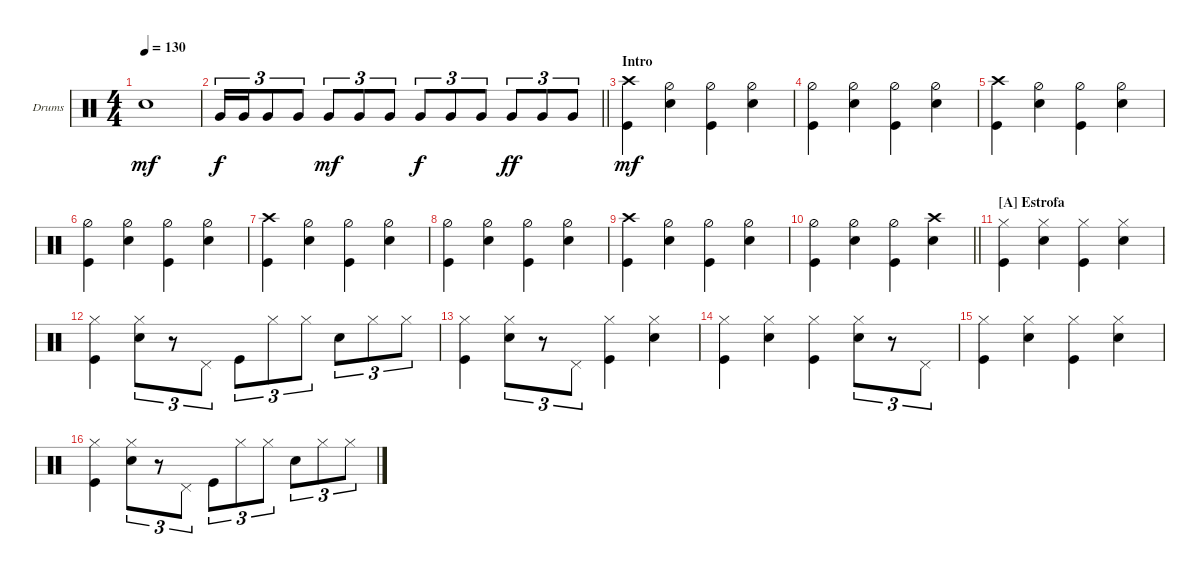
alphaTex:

\bracketExtendMode groupsimilarinstruments
\firstSystemTrackNameOrientation horizontal
\otherSystemsTrackNameOrientation horizontal
\track ("Drums Ghoul" "Drums") {instrument percussion}
\staff {score}
\articulation defaults
\ts (4 4)
\tempo 130
\clef neutral
\ks c "Snare (hit) 2".1{dy mf}
|
\barLineRight lightlight "Very Low Tom (hit)".16{tu (3 2) dy f} "Very Low Tom (hit)".16{tu (3 2)} "Very Low Tom (hit)".8{tu (3 2)} "Very Low Tom (hit)".8{tu (3 2)} "Very Low Tom (hit)".8{tu (3 2) dy mf} "Very Low Tom (hit)".8{tu (3 2)} "Very Low Tom (hit)".8{tu (3 2)} "Very Low Tom (hit)".8{tu (3 2) dy f} "Very Low Tom (hit)".8{tu (3 2)} "Very Low Tom (hit)".8{tu (3 2)} "Very Low Tom (hit)".8{tu (3 2) dy ff} "Very Low Tom (hit)".8{tu (3 2)} "Very Low Tom (hit)".8{tu (3 2)}
|
\section ("" "Intro")
("Kick (hit)" "Crash high (hit)").4{dy mf} ("Snare (hit) 2" "Hi-Hat (half)").4 ("Kick (hit)" "Hi-Hat (half)").4 ("Snare (hit) 2" "Hi-Hat (half)").4 |
("Kick (hit)" "Hi-Hat (half)").4 ("Snare (hit) 2" "Hi-Hat (half)").4 ("Kick (hit)" "Hi-Hat (half)").4 ("Snare (hit) 2" "Hi-Hat (half)").4 |
("Kick (hit)" "Crash high (hit)").4 ("Snare (hit) 2" "Hi-Hat (half)").4 ("Kick (hit)" "Hi-Hat (half)").4 ("Snare (hit) 2" "Hi-Hat (half)").4 |
("Kick (hit)" "Hi-Hat (half)").4 ("Snare (hit) 2" "Hi-Hat (half)").4 ("Kick (hit)" "Hi-Hat (half)").4 ("Snare (hit) 2" "Hi-Hat (half)").4 |
("Kick (hit)" "Crash high (hit)").4 ("Snare (hit) 2" "Hi-Hat (half)").4 ("Kick (hit)" "Hi-Hat (half)").4 ("Snare (hit) 2" "Hi-Hat (half)").4 |
("Kick (hit)" "Hi-Hat (half)").4 ("Snare (hit) 2" "Hi-Hat (half)").4 ("Kick (hit)" "Hi-Hat (half)").4 ("Snare (hit) 2" "Hi-Hat (half)").4 |
("Kick (hit)" "Crash high (hit)").4 ("Snare (hit) 2" "Hi-Hat (half)").4 ("Kick (hit)" "Hi-Hat (half)").4 ("Snare (hit) 2" "Hi-Hat (half)").4 |
\barLineRight lightlight
("Kick (hit)" "Hi-Hat (half)").4 ("Snare (hit) 2" "Hi-Hat (half)").4 ("Kick (hit)" "Hi-Hat (half)").4 ("Snare (hit) 2" "Crash high (hit)").4 |
\section ("A" "Estrofa")
("Kick (hit)" "Hi-Hat (closed)").4 ("Snare (hit) 2" "Hi-Hat (closed)").4 ("Kick (hit)" "Hi-Hat (closed)").4 ("Snare (hit) 2" "Hi-Hat (closed)").4 |
("Kick (hit)" "Hi-Hat (closed)").4 ("Snare (hit) 2" "Hi-Hat (closed)").8{tu (3 2)} r.8{tu (3 2)} "Pedal Hi-Hat (hit)".8{tu (3 2)} "Kick (hit)".8{tu (3 2)} "Hi-Hat (closed)".8{tu (3 2)} "Hi-Hat (closed)".8{tu (3 2)} "Snare (hit) 2".8{tu (3 2)} "Hi-Hat (closed)".8{tu (3 2)} "Hi-Hat (closed)".8{tu (3 2)} |
("Kick (hit)" "Hi-Hat (closed)").4 ("Snare (hit) 2" "Hi-Hat (closed)").8{tu (3 2)} r.8{tu (3 2)} "Pedal Hi-Hat (hit)".8{tu (3 2)} ("Kick (hit)" "Hi-Hat (closed)").4 ("Snare (hit) 2" "Hi-Hat (closed)").4 |
("Kick (hit)" "Hi-Hat (closed)").4 ("Snare (hit) 2" "Hi-Hat (closed)").4 ("Kick (hit)" "Hi-Hat (closed)").4 ("Snare (hit) 2" "Hi-Hat (closed)").8{tu (3 2)} r.8{tu (3 2)} "Pedal Hi-Hat (hit)".8{tu (3 2)} |
("Kick (hit)" "Hi-Hat (closed)").4 ("Snare (hit) 2" "Hi-Hat (closed)").4 ("Kick (hit)" "Hi-Hat (closed)").4 ("Snare (hit) 2" "Hi-Hat (closed)").4 |
("Kick (hit)" "Hi-Hat (closed)").4 ("Snare (hit) 2" "Hi-Hat (closed)").8{tu (3 2)} r.8{tu (3 2)} "Pedal Hi-Hat (hit)".8{tu (3 2)} "Kick (hit)".8{tu (3 2)} "Hi-Hat (closed)".8{tu (3 2)} "Hi-Hat (closed)".8{tu (3 2)} "Snare (hit) 2".8{tu (3 2)} "Hi-Hat (closed)".8{tu (3 2)} "Hi-Hat (closed)".8{tu (3 2)}
